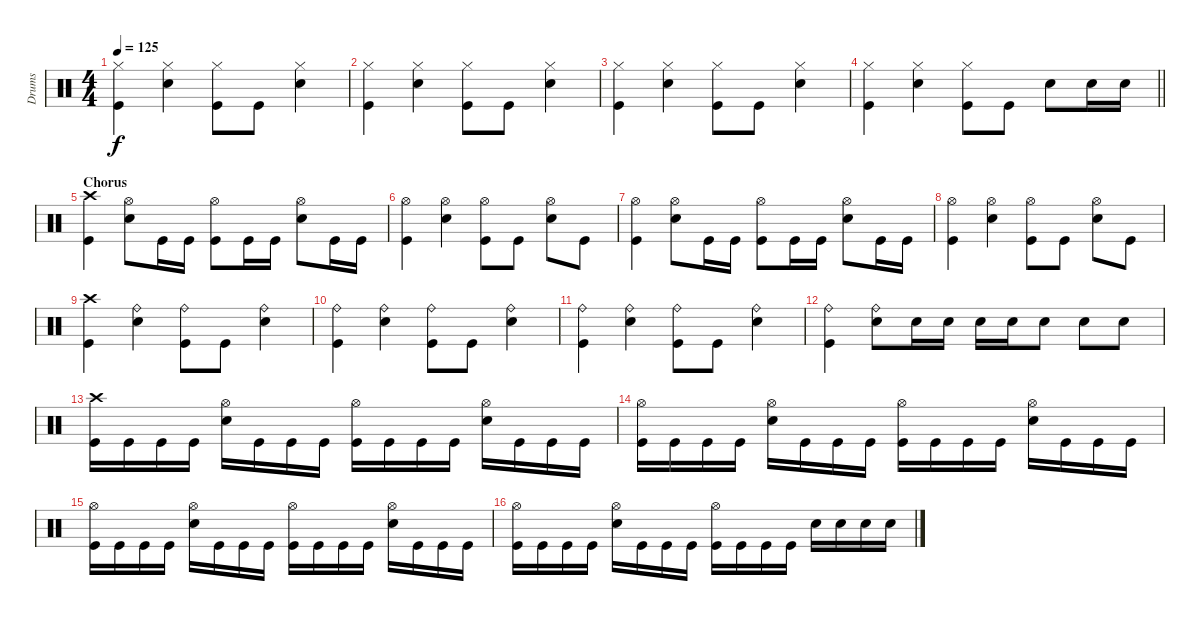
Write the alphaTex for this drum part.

\track ("Drums" "Drums") {instrument percussion}
\staff {score}
\articulation defaults
\ts (4 4)
\tempo 125
\clef neutral
\ks c
("Hi-Hat (closed)" "Kick (hit)").4{dy f} ("Hi-Hat (closed)" "Electric Snare (hit)").4 ("Hi-Hat (closed)" "Kick (hit)").8 "Kick (hit)".8 ("Hi-Hat (closed)" "Electric Snare (hit)").4 |
("Hi-Hat (closed)" "Kick (hit)").4 ("Hi-Hat (closed)" "Electric Snare (hit)").4 ("Hi-Hat (closed)" "Kick (hit)").8 "Kick (hit)".8 ("Hi-Hat (closed)" "Electric Snare (hit)").4 |
("Hi-Hat (closed)" "Kick (hit)").4 ("Hi-Hat (closed)" "Electric Snare (hit)").4 ("Hi-Hat (closed)" "Kick (hit)").8 "Kick (hit)".8 ("Hi-Hat (closed)" "Electric Snare (hit)").4 |
\barLineRight lightlight
("Hi-Hat (closed)" "Kick (hit)").4 ("Hi-Hat (closed)" "Electric Snare (hit)").4 ("Hi-Hat (closed)" "Kick (hit)").8 "Kick (hit)".8 "Electric Snare (hit)".8 "Electric Snare (hit)".16 "Electric Snare (hit)".16 |
\section ("" "Chorus ")
("Crash high (hit)" "Kick (hit)").4 ("Hi-Hat (open)" "Electric Snare (hit)").8 "Kick (hit)".16 "Kick (hit)".16 ("Hi-Hat (open)" "Kick (hit)").8 "Kick (hit)".16 "Kick (hit)".16 ("Hi-Hat (open)" "Electric Snare (hit)").8 "Kick (hit)".16 "Kick (hit)".16 |
("Hi-Hat (open)" "Kick (hit)").4 ("Hi-Hat (open)" "Electric Snare (hit)").4 ("Hi-Hat (open)" "Kick (hit)").8 "Kick (hit)".8 ("Hi-Hat (open)" "Electric Snare (hit)").8 "Kick (hit)".8 |
("Hi-Hat (open)" "Kick (hit)").4 ("Hi-Hat (open)" "Electric Snare (hit)").8 "Kick (hit)".16 "Kick (hit)".16 ("Hi-Hat (open)" "Kick (hit)").8 "Kick (hit)".16 "Kick (hit)".16 ("Hi-Hat (open)" "Electric Snare (hit)").8 "Kick (hit)".16 "Kick (hit)".16 |
("Hi-Hat (open)" "Kick (hit)").4 ("Hi-Hat (open)" "Electric Snare (hit)").4 ("Hi-Hat (open)" "Kick (hit)").8 "Kick (hit)".8 ("Hi-Hat (open)" "Electric Snare (hit)").8 "Kick (hit)".8 |
("Crash high (hit)" "Kick (hit)").4 ("Ride (bell)" "Electric Snare (hit)").4 ("Ride (bell)" "Kick (hit)").8 "Kick (hit)".8 ("Ride (bell)" "Electric Snare (hit)").4 |
("Ride (bell)" "Kick (hit)").4 ("Ride (bell)" "Electric Snare (hit)").4 ("Ride (bell)" "Kick (hit)").8 "Kick (hit)".8 ("Ride (bell)" "Electric Snare (hit)").4 |
("Ride (bell)" "Kick (hit)").4 ("Ride (bell)" "Electric Snare (hit)").4 ("Ride (bell)" "Kick (hit)").8 "Kick (hit)".8 ("Ride (bell)" "Electric Snare (hit)").4 |
("Ride (bell)" "Kick (hit)").4 ("Ride (bell)" "Electric Snare (hit)").8 "Electric Snare (hit)".16 "Electric Snare (hit)".16 "Electric Snare (hit)".16 "Electric Snare (hit)".16 "Electric Snare (hit)".8 "Electric Snare (hit)".8 "Electric Snare (hit)".8 |
("Crash high (hit)" "Kick (hit)").16 "Kick (hit)".16 "Kick (hit)".16 "Kick (hit)".16 ("Hi-Hat (open)" "Electric Snare (hit)").16 "Kick (hit)".16 "Kick (hit)".16 "Kick (hit)".16 ("Hi-Hat (open)" "Kick (hit)").16 "Kick (hit)".16 "Kick (hit)".16 "Kick (hit)".16 ("Hi-Hat (open)" "Electric Snare (hit)").16 "Kick (hit)".16 "Kick (hit)".16 "Kick (hit)".16 |
("Hi-Hat (open)" "Kick (hit)").16 "Kick (hit)".16 "Kick (hit)".16 "Kick (hit)".16 ("Hi-Hat (open)" "Electric Snare (hit)").16 "Kick (hit)".16 "Kick (hit)".16 "Kick (hit)".16 ("Hi-Hat (open)" "Kick (hit)").16 "Kick (hit)".16 "Kick (hit)".16 "Kick (hit)".16 ("Hi-Hat (open)" "Electric Snare (hit)").16 "Kick (hit)".16 "Kick (hit)".16 "Kick (hit)".16 |
("Hi-Hat (open)" "Kick (hit)").16 "Kick (hit)".16 "Kick (hit)".16 "Kick (hit)".16 ("Hi-Hat (open)" "Electric Snare (hit)").16 "Kick (hit)".16 "Kick (hit)".16 "Kick (hit)".16 ("Hi-Hat (open)" "Kick (hit)").16 "Kick (hit)".16 "Kick (hit)".16 "Kick (hit)".16 ("Hi-Hat (open)" "Electric Snare (hit)").16 "Kick (hit)".16 "Kick (hit)".16 "Kick (hit)".16 |
("Hi-Hat (open)" "Kick (hit)").16 "Kick (hit)".16 "Kick (hit)".16 "Kick (hit)".16 ("Hi-Hat (open)" "Electric Snare (hit)").16 "Kick (hit)".16 "Kick (hit)".16 "Kick (hit)".16 ("Hi-Hat (open)" "Kick (hit)").16 "Kick (hit)".16 "Kick (hit)".16 "Kick (hit)".16 "Electric Snare (hit)".16 "Electric Snare (hit)".16 "Electric Snare (hit)".16 "Electric Snare (hit)".16
